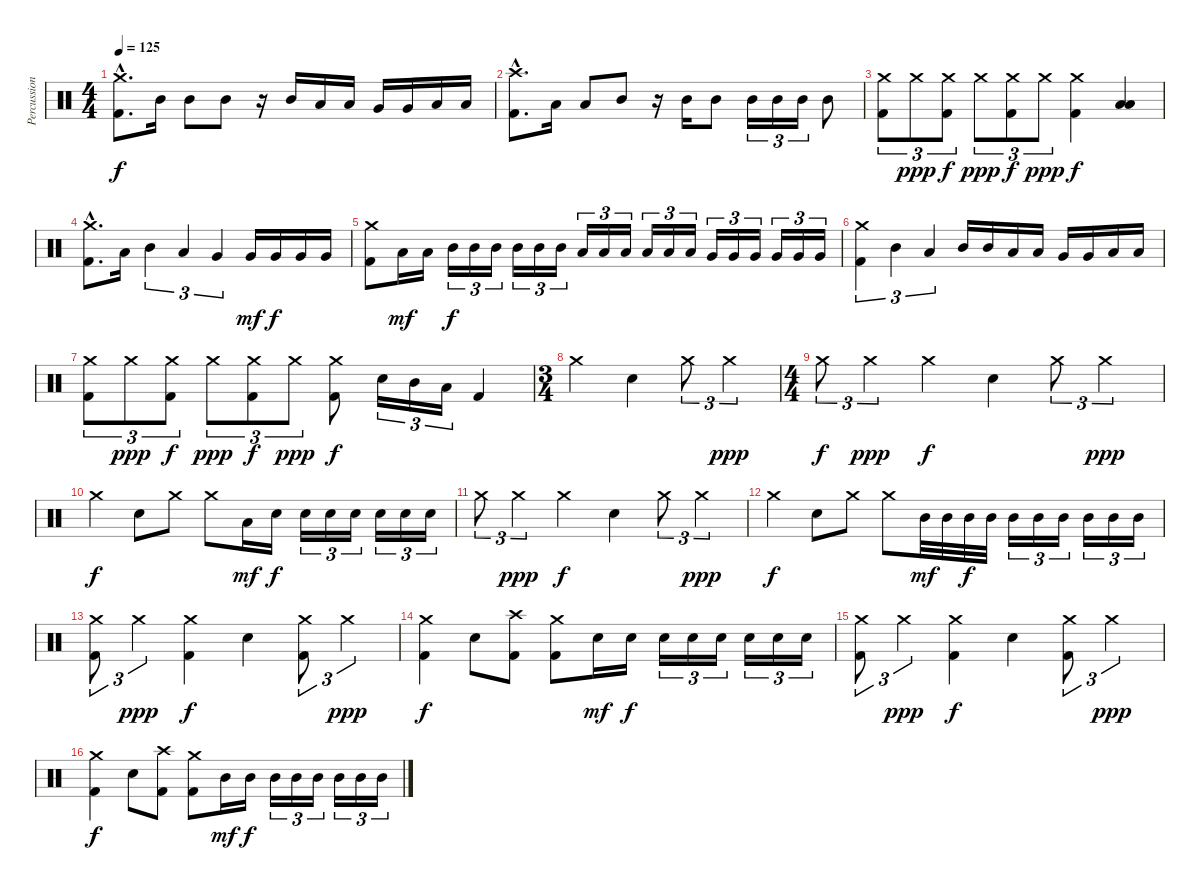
\track ("Percussion" "Percussion") {instrument percussion}
\staff {score}
\articulation defaults
\ts (4 4)
\tempo 125
\clef neutral
\ks c
("Kick (hit) 2"{hac} "Crash medium (hit)"{hac}).8{d dy f} "Mid Tom (hit)".16 "Mid Tom (hit)".8 "Mid Tom (hit)".8 r.16 "Mid Tom (hit)".16 "Low Tom (hit)".16 "Low Tom (hit)".16 "Very Low Tom (hit)".16 "Very Low Tom (hit)".16 "Low Floor Tom (hit)".16 "Low Floor Tom (hit)".16 |
("Kick (hit) 2"{hac} "Crash high (hit)"{hac}).8{d} "Low Tom (hit)".16 "Low Tom (hit)".8 "Mid Tom (hit)".8 r.16 "Mid Tom (hit)".16 "Mid Tom (hit)".8 "Mid Tom (hit)".16{tu (3 2)} "Mid Tom (hit)".16{tu (3 2)} "Mid Tom (hit)".16{tu (3 2)} "Mid Tom (hit)".8 |
("Kick (hit) 2" "Crash medium (hit)").8{tu (3 2)} "Crash medium (hit)".8{tu (3 2) dy ppp} ("Kick (hit) 2" "Crash medium (hit)").8{tu (3 2) dy f} "Crash medium (hit)".8{tu (3 2) dy ppp} ("Kick (hit) 2" "Crash medium (hit)").8{tu (3 2) dy f} "Crash medium (hit)".8{tu (3 2) dy ppp} ("Kick (hit) 2" "Crash medium (hit)").4{dy f} ("Low Tom (hit)" "Low Tom (hit)").4 |
("Kick (hit) 2"{hac} "Crash medium (hit)"{hac}).8{d} "Low Tom (hit)".16 "Mid Tom (hit)".4{tu (3 2)} "Low Tom (hit)".4{tu (3 2)} "Very Low Tom (hit)".4{tu (3 2)} "Very Low Tom (hit)".16{dy mf} "Very Low Tom (hit)".16{dy f} "Very Low Tom (hit)".16 "Very Low Tom (hit)".16 |
("Kick (hit) 2" "Crash medium (hit)").8 "Low Tom (hit)".16{dy mf} "Low Tom (hit)".16 "Mid Tom (hit)".16{tu (3 2) dy f} "Mid Tom (hit)".16{tu (3 2)} "Mid Tom (hit)".16{tu (3 2)} "Mid Tom (hit)".16{tu (3 2)} "Mid Tom (hit)".16{tu (3 2)} "Mid Tom (hit)".16{tu (3 2)} "Low Tom (hit)".16{tu (3 2)} "Low Tom (hit)".16{tu (3 2)} "Low Tom (hit)".16{tu (3 2)} "Low Tom (hit)".16{tu (3 2)} "Low Tom (hit)".16{tu (3 2)} "Low Tom (hit)".16{tu (3 2)} "Very Low Tom (hit)".16{tu (3 2)} "Very Low Tom (hit)".16{tu (3 2)} "Very Low Tom (hit)".16{tu (3 2)} "Very Low Tom (hit)".16{tu (3 2)} "Very Low Tom (hit)".16{tu (3 2)} "Very Low Tom (hit)".16{tu (3 2)} |
("Kick (hit) 2" "Crash medium (hit)").4{tu (3 2)} "Mid Tom (hit)".4{tu (3 2)} "Low Tom (hit)".4{tu (3 2)} "Mid Tom (hit)".16 "Mid Tom (hit)".16 "Low Tom (hit)".16 "Low Tom (hit)".16 "Very Low Tom (hit)".16 "Very Low Tom (hit)".16 "Low Floor Tom (hit)".16 "Low Floor Tom (hit)".16 |
("Kick (hit) 2" "Crash medium (hit)").8{tu (3 2)} "Crash medium (hit)".8{tu (3 2) dy ppp} ("Kick (hit) 2" "Crash medium (hit)").8{tu (3 2) dy f} "Crash medium (hit)".8{tu (3 2) dy ppp} ("Kick (hit) 2" "Crash medium (hit)").8{tu (3 2) dy f} "Crash medium (hit)".8{tu (3 2) dy ppp} ("Kick (hit) 2" "Crash medium (hit)").8{dy f} "Electric Snare (hit)".16{tu (3 2)} "Mid Tom (hit)".16{tu (3 2)} "Low Tom (hit)".16{tu (3 2)} "Kick (hit) 2".4 |
\ts (3 4)
"Crash medium (hit)".4 "Electric Snare (hit)".4 "Crash medium (hit)".8{tu (3 2)} "Crash medium (hit)".4{tu (3 2) dy ppp} |
\ts (4 4)
"Crash medium (hit)".8{tu (3 2) dy f} "Crash medium (hit)".4{tu (3 2) dy ppp} "Crash medium (hit)".4{dy f} "Electric Snare (hit)".4 "Crash medium (hit)".8{tu (3 2)} "Crash medium (hit)".4{tu (3 2) dy ppp} |
"Crash medium (hit)".4{dy f} "Electric Snare (hit)".8 "Crash medium (hit)".8 "Crash medium (hit)".8 "Low Tom (hit)".16{dy mf} "Electric Snare (hit)".16{dy f} "Electric Snare (hit)".16{tu (3 2)} "Electric Snare (hit)".16{tu (3 2)} "Electric Snare (hit)".16{tu (3 2)} "Electric Snare (hit)".16{tu (3 2)} "Electric Snare (hit)".16{tu (3 2)} "Electric Snare (hit)".16{tu (3 2)} |
"Crash medium (hit)".8{tu (3 2)} "Crash medium (hit)".4{tu (3 2) dy ppp} "Crash medium (hit)".4{dy f} "Electric Snare (hit)".4 "Crash medium (hit)".8{tu (3 2)} "Crash medium (hit)".4{tu (3 2) dy ppp} |
"Crash medium (hit)".4{dy f} "Electric Snare (hit)".8 "Crash medium (hit)".8 "Crash medium (hit)".8 "Mid Tom (hit)".32{dy mf} "Mid Tom (hit)".32 "Mid Tom (hit)".32{dy f} "Mid Tom (hit)".32 "Mid Tom (hit)".16{tu (3 2)} "Mid Tom (hit)".16{tu (3 2)} "Mid Tom (hit)".16{tu (3 2)} "Mid Tom (hit)".16{tu (3 2)} "Mid Tom (hit)".16{tu (3 2)} "Mid Tom (hit)".16{tu (3 2)} |
("Kick (hit) 2" "Crash medium (hit)").8{tu (3 2)} "Crash medium (hit)".4{tu (3 2) dy ppp} ("Kick (hit) 2" "Crash medium (hit)").4{dy f} "Electric Snare (hit)".4 ("Kick (hit) 2" "Crash medium (hit)").8{tu (3 2)} "Crash medium (hit)".4{tu (3 2) dy ppp} |
("Kick (hit) 2" "Crash medium (hit)").4{dy f} "Electric Snare (hit)".8 ("Kick (hit) 2" "Crash high (hit)").8 ("Kick (hit) 2" "Crash medium (hit)").8 "Electric Snare (hit)".16{dy mf} "Electric Snare (hit)".16{dy f} "Electric Snare (hit)".16{tu (3 2)} "Electric Snare (hit)".16{tu (3 2)} "Electric Snare (hit)".16{tu (3 2)} "Electric Snare (hit)".16{tu (3 2)} "Electric Snare (hit)".16{tu (3 2)} "Electric Snare (hit)".16{tu (3 2)} |
("Kick (hit) 2" "Crash medium (hit)").8{tu (3 2)} "Crash medium (hit)".4{tu (3 2) dy ppp} ("Kick (hit) 2" "Crash medium (hit)").4{dy f} "Electric Snare (hit)".4 ("Kick (hit) 2" "Crash medium (hit)").8{tu (3 2)} "Crash medium (hit)".4{tu (3 2) dy ppp} |
("Kick (hit) 2" "Crash medium (hit)").4{dy f} "Electric Snare (hit)".8 ("Kick (hit) 2" "Crash high (hit)").8 ("Kick (hit) 2" "Crash medium (hit)").8 "Mid Tom (hit)".16{dy mf} "Mid Tom (hit)".16{dy f} "Mid Tom (hit)".16{tu (3 2)} "Mid Tom (hit)".16{tu (3 2)} "Mid Tom (hit)".16{tu (3 2)} "Mid Tom (hit)".16{tu (3 2)} "Mid Tom (hit)".16{tu (3 2)} "Mid Tom (hit)".16{tu (3 2)}
